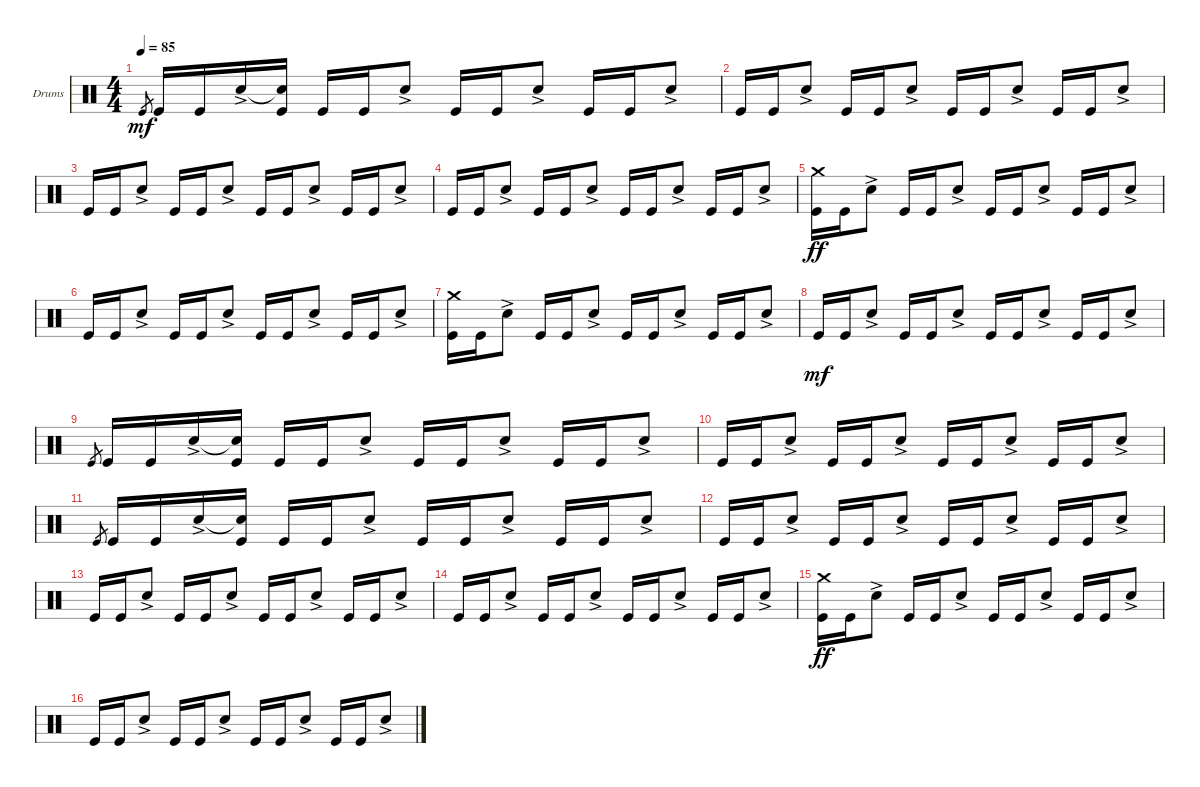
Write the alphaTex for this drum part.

\defaultSystemsLayout 4
\bracketExtendMode groupsimilarinstruments
\firstSystemTrackNameOrientation horizontal
\otherSystemsTrackNameOrientation horizontal
\track ("Drumkit" "Drums") {instrument percussion}
\staff {score}
\articulation defaults
\ts (4 4)
\tempo 85
\clef neutral
\ks c "Kick (hit)".8{gr dy mf} "Kick (hit)".16 "Kick (hit)".16 "Snare (hit) 2"{ac}.16
("Snare (hit) 2"{t} "Kick (hit)").16 "Kick (hit)".16 "Kick (hit)".16 "Snare (hit) 2"{ac}.8 "Kick (hit)".16 "Kick (hit)".16 "Snare (hit) 2"{ac}.8 "Kick (hit)".16 "Kick (hit)".16 "Snare (hit) 2"{ac}.8 |
"Kick (hit)".16 "Kick (hit)".16 "Snare (hit) 2"{ac}.8 "Kick (hit)".16 "Kick (hit)".16 "Snare (hit) 2"{ac}.8 "Kick (hit)".16 "Kick (hit)".16 "Snare (hit) 2"{ac}.8 "Kick (hit)".16 "Kick (hit)".16 "Snare (hit) 2"{ac}.8 |
"Kick (hit)".16 "Kick (hit)".16 "Snare (hit) 2"{ac}.8 "Kick (hit)".16 "Kick (hit)".16 "Snare (hit) 2"{ac}.8 "Kick (hit)".16 "Kick (hit)".16 "Snare (hit) 2"{ac}.8 "Kick (hit)".16 "Kick (hit)".16 "Snare (hit) 2"{ac}.8 |
"Kick (hit)".16 "Kick (hit)".16 "Snare (hit) 2"{ac}.8 "Kick (hit)".16 "Kick (hit)".16 "Snare (hit) 2"{ac}.8 "Kick (hit)".16 "Kick (hit)".16 "Snare (hit) 2"{ac}.8 "Kick (hit)".16 "Kick (hit)".16 "Snare (hit) 2"{ac}.8 |
("Kick (hit)" "Crash medium (hit)").16{dy ff} "Kick (hit)".16 "Snare (hit) 2"{ac}.8 "Kick (hit)".16 "Kick (hit)".16 "Snare (hit) 2"{ac}.8 "Kick (hit)".16 "Kick (hit)".16 "Snare (hit) 2"{ac}.8 "Kick (hit)".16 "Kick (hit)".16 "Snare (hit) 2"{ac}.8 |
"Kick (hit)".16 "Kick (hit)".16 "Snare (hit) 2"{ac}.8 "Kick (hit)".16 "Kick (hit)".16 "Snare (hit) 2"{ac}.8 "Kick (hit)".16 "Kick (hit)".16 "Snare (hit) 2"{ac}.8 "Kick (hit)".16 "Kick (hit)".16 "Snare (hit) 2"{ac}.8 |
("Kick (hit)" "Crash medium (hit)").16 "Kick (hit)".16 "Snare (hit) 2"{ac}.8 "Kick (hit)".16 "Kick (hit)".16 "Snare (hit) 2"{ac}.8 "Kick (hit)".16 "Kick (hit)".16 "Snare (hit) 2"{ac}.8 "Kick (hit)".16 "Kick (hit)".16 "Snare (hit) 2"{ac}.8 |
"Kick (hit)".16{dy mf} "Kick (hit)".16 "Snare (hit) 2"{ac}.8 "Kick (hit)".16 "Kick (hit)".16 "Snare (hit) 2"{ac}.8 "Kick (hit)".16 "Kick (hit)".16 "Snare (hit) 2"{ac}.8 "Kick (hit)".16 "Kick (hit)".16 "Snare (hit) 2"{ac}.8 |
"Kick (hit)".8{gr} "Kick (hit)".16 "Kick (hit)".16 "Snare (hit) 2"{ac}.16 ("Snare (hit) 2"{t} "Kick (hit)").16 "Kick (hit)".16 "Kick (hit)".16 "Snare (hit) 2"{ac}.8 "Kick (hit)".16 "Kick (hit)".16 "Snare (hit) 2"{ac}.8 "Kick (hit)".16 "Kick (hit)".16 "Snare (hit) 2"{ac}.8 |
"Kick (hit)".16 "Kick (hit)".16 "Snare (hit) 2"{ac}.8 "Kick (hit)".16 "Kick (hit)".16 "Snare (hit) 2"{ac}.8 "Kick (hit)".16 "Kick (hit)".16 "Snare (hit) 2"{ac}.8 "Kick (hit)".16 "Kick (hit)".16 "Snare (hit) 2"{ac}.8 |
"Kick (hit)".8{gr} "Kick (hit)".16 "Kick (hit)".16 "Snare (hit) 2"{ac}.16 ("Snare (hit) 2"{t} "Kick (hit)").16 "Kick (hit)".16 "Kick (hit)".16 "Snare (hit) 2"{ac}.8 "Kick (hit)".16 "Kick (hit)".16 "Snare (hit) 2"{ac}.8 "Kick (hit)".16 "Kick (hit)".16 "Snare (hit) 2"{ac}.8 |
"Kick (hit)".16 "Kick (hit)".16 "Snare (hit) 2"{ac}.8 "Kick (hit)".16 "Kick (hit)".16 "Snare (hit) 2"{ac}.8 "Kick (hit)".16 "Kick (hit)".16 "Snare (hit) 2"{ac}.8 "Kick (hit)".16 "Kick (hit)".16 "Snare (hit) 2"{ac}.8 |
"Kick (hit)".16 "Kick (hit)".16 "Snare (hit) 2"{ac}.8 "Kick (hit)".16 "Kick (hit)".16 "Snare (hit) 2"{ac}.8 "Kick (hit)".16 "Kick (hit)".16 "Snare (hit) 2"{ac}.8 "Kick (hit)".16 "Kick (hit)".16 "Snare (hit) 2"{ac}.8 |
"Kick (hit)".16 "Kick (hit)".16 "Snare (hit) 2"{ac}.8 "Kick (hit)".16 "Kick (hit)".16 "Snare (hit) 2"{ac}.8 "Kick (hit)".16 "Kick (hit)".16 "Snare (hit) 2"{ac}.8 "Kick (hit)".16 "Kick (hit)".16 "Snare (hit) 2"{ac}.8 |
("Kick (hit)" "Crash medium (hit)").16{dy ff} "Kick (hit)".16 "Snare (hit) 2"{ac}.8 "Kick (hit)".16 "Kick (hit)".16 "Snare (hit) 2"{ac}.8 "Kick (hit)".16 "Kick (hit)".16 "Snare (hit) 2"{ac}.8 "Kick (hit)".16 "Kick (hit)".16 "Snare (hit) 2"{ac}.8 |
"Kick (hit)".16 "Kick (hit)".16 "Snare (hit) 2"{ac}.8 "Kick (hit)".16 "Kick (hit)".16 "Snare (hit) 2"{ac}.8 "Kick (hit)".16 "Kick (hit)".16 "Snare (hit) 2"{ac}.8 "Kick (hit)".16 "Kick (hit)".16 "Snare (hit) 2"{ac}.8
